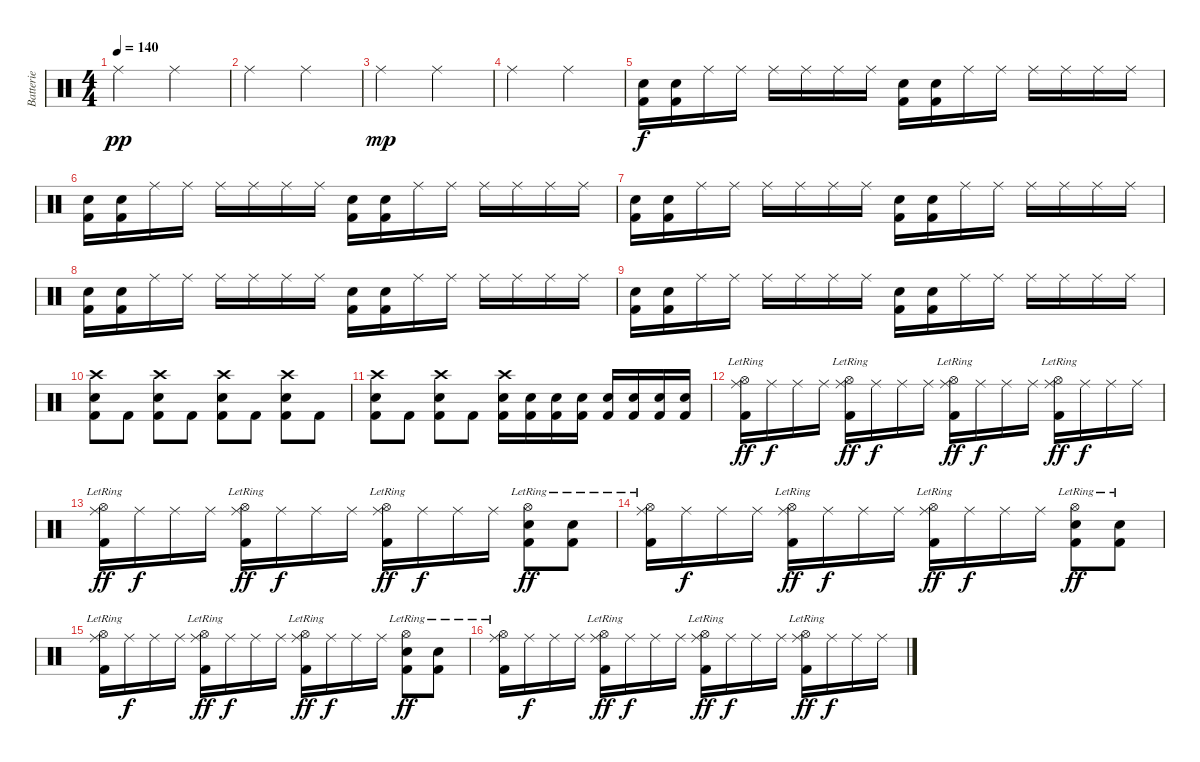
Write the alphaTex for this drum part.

\track ("Batterie" "Batterie") {instrument percussion}
\staff {score}
\articulation defaults
\ts (4 4)
\tempo 140
\clef neutral
\ks c "Ride (middle)".2{dy pp} "Ride (middle)".2
|
"Ride (middle)".2 "Ride (middle)".2 |
"Ride (middle)".2{dy mp} "Ride (middle)".2 |
"Ride (middle)".2 "Ride (middle)".2 |
("Snare (hit) 2" "Kick (hit) 2").16{dy f} ("Snare (hit) 2" "Kick (hit) 2").16 "Ride (middle)".16 "Ride (middle)".16 "Ride (middle)".16 "Ride (middle)".16 "Ride (middle)".16 "Ride (middle)".16 ("Snare (hit) 2" "Kick (hit) 2").16 ("Snare (hit) 2" "Kick (hit) 2").16 "Ride (middle)".16 "Ride (middle)".16 "Ride (middle)".16 "Ride (middle)".16 "Ride (middle)".16 "Ride (middle)".16 |
("Snare (hit) 2" "Kick (hit) 2").16 ("Snare (hit) 2" "Kick (hit) 2").16 "Ride (middle)".16 "Ride (middle)".16 "Ride (middle)".16 "Ride (middle)".16 "Ride (middle)".16 "Ride (middle)".16 ("Snare (hit) 2" "Kick (hit) 2").16 ("Snare (hit) 2" "Kick (hit) 2").16 "Ride (middle)".16 "Ride (middle)".16 "Ride (middle)".16 "Ride (middle)".16 "Ride (middle)".16 "Ride (middle)".16 |
("Snare (hit) 2" "Kick (hit) 2").16 ("Snare (hit) 2" "Kick (hit) 2").16 "Ride (middle)".16 "Ride (middle)".16 "Ride (middle)".16 "Ride (middle)".16 "Ride (middle)".16 "Ride (middle)".16 ("Snare (hit) 2" "Kick (hit) 2").16 ("Snare (hit) 2" "Kick (hit) 2").16 "Ride (middle)".16 "Ride (middle)".16 "Ride (middle)".16 "Ride (middle)".16 "Ride (middle)".16 "Ride (middle)".16 |
("Snare (hit) 2" "Kick (hit) 2").16 ("Snare (hit) 2" "Kick (hit) 2").16 "Ride (middle)".16 "Ride (middle)".16 "Ride (middle)".16 "Ride (middle)".16 "Ride (middle)".16 "Ride (middle)".16 ("Snare (hit) 2" "Kick (hit) 2").16 ("Snare (hit) 2" "Kick (hit) 2").16 "Ride (middle)".16 "Ride (middle)".16 "Ride (middle)".16 "Ride (middle)".16 "Ride (middle)".16 "Ride (middle)".16 |
("Snare (hit) 2" "Kick (hit) 2").16 ("Snare (hit) 2" "Kick (hit) 2").16 "Ride (middle)".16 "Ride (middle)".16 "Ride (middle)".16 "Ride (middle)".16 "Ride (middle)".16 "Ride (middle)".16 ("Snare (hit) 2" "Kick (hit) 2").16 ("Snare (hit) 2" "Kick (hit) 2").16 "Ride (middle)".16 "Ride (middle)".16 "Ride (middle)".16 "Ride (middle)".16 "Ride (middle)".16 "Ride (middle)".16 |
("Crash high (hit)" "Snare (hit) 2" "Kick (hit) 2").8 "Kick (hit) 2".8 ("Crash high (hit)" "Snare (hit) 2" "Kick (hit) 2").8 "Kick (hit) 2".8 ("Crash high (hit)" "Snare (hit) 2" "Kick (hit) 2").8 "Kick (hit) 2".8 ("Crash high (hit)" "Snare (hit) 2" "Kick (hit) 2").8 "Kick (hit) 2".8 |
("Crash high (hit)" "Snare (hit) 2" "Kick (hit) 2").8 "Kick (hit) 2".8 ("Crash high (hit)" "Snare (hit) 2" "Kick (hit) 2").8 "Kick (hit) 2".8 ("Crash high (hit)" "Snare (hit) 2" "Kick (hit) 2").16 ("Snare (hit) 2" "Kick (hit) 2").16 ("Snare (hit) 2" "Kick (hit) 2").16 ("Snare (hit) 2" "Kick (hit) 2").16 ("Snare (hit) 2" "Kick (hit) 2").16 ("Snare (hit) 2" "Kick (hit) 2").16 ("Snare (hit) 2" "Kick (hit) 2").16 ("Snare (hit) 2" "Kick (hit) 2").16 |
("Ride (middle)" "Hi-Hat (open)"{lr} "Kick (hit) 2"{lr}).16{dy ff} "Ride (middle)".16{dy f} "Ride (middle)".16 "Ride (middle)".16 ("Ride (middle)" "Hi-Hat (open)"{lr} "Kick (hit) 2"{lr}).16{dy ff} "Ride (middle)".16{dy f} "Ride (middle)".16 "Ride (middle)".16 ("Ride (middle)" "Hi-Hat (open)"{lr} "Kick (hit) 2"{lr}).16{dy ff} "Ride (middle)".16{dy f} "Ride (middle)".16 "Ride (middle)".16 ("Ride (middle)" "Hi-Hat (open)"{lr} "Kick (hit) 2"{lr}).16{dy ff} "Ride (middle)".16{dy f} "Ride (middle)".16 "Ride (middle)".16 |
("Ride (middle)" "Hi-Hat (open)"{lr} "Kick (hit) 2"{lr}).16{dy ff} "Ride (middle)".16{dy f} "Ride (middle)".16 "Ride (middle)".16 ("Ride (middle)" "Hi-Hat (open)"{lr} "Kick (hit) 2"{lr}).16{dy ff} "Ride (middle)".16{dy f} "Ride (middle)".16 "Ride (middle)".16 ("Ride (middle)" "Hi-Hat (open)"{lr} "Kick (hit) 2"{lr}).16{dy ff} "Ride (middle)".16{dy f} "Ride (middle)".16 "Ride (middle)".16 ("Snare (hit) 2" "Hi-Hat (open)" "Kick (hit) 2"{lr}).8{dy ff} ("Snare (hit) 2" "Kick (hit) 2"{lr}).8 |
("Ride (middle)" "Hi-Hat (open)"{lr} "Kick (hit) 2"{lr}).16 "Ride (middle)".16{dy f} "Ride (middle)".16 "Ride (middle)".16 ("Ride (middle)" "Hi-Hat (open)"{lr} "Kick (hit) 2"{lr}).16{dy ff} "Ride (middle)".16{dy f} "Ride (middle)".16 "Ride (middle)".16 ("Ride (middle)" "Hi-Hat (open)"{lr} "Kick (hit) 2"{lr}).16{dy ff} "Ride (middle)".16{dy f} "Ride (middle)".16 "Ride (middle)".16 ("Snare (hit) 2" "Hi-Hat (open)" "Kick (hit) 2"{lr}).8{dy ff} ("Snare (hit) 2" "Kick (hit) 2"{lr}).8 |
("Ride (middle)" "Hi-Hat (open)"{lr} "Kick (hit) 2"{lr}).16 "Ride (middle)".16{dy f} "Ride (middle)".16 "Ride (middle)".16 ("Ride (middle)" "Hi-Hat (open)"{lr} "Kick (hit) 2"{lr}).16{dy ff} "Ride (middle)".16{dy f} "Ride (middle)".16 "Ride (middle)".16 ("Ride (middle)" "Hi-Hat (open)"{lr} "Kick (hit) 2"{lr}).16{dy ff} "Ride (middle)".16{dy f} "Ride (middle)".16 "Ride (middle)".16 ("Snare (hit) 2" "Hi-Hat (open)" "Kick (hit) 2"{lr}).8{dy ff} ("Snare (hit) 2" "Kick (hit) 2"{lr}).8 |
("Ride (middle)" "Hi-Hat (open)"{lr} "Kick (hit) 2"{lr}).16 "Ride (middle)".16{dy f} "Ride (middle)".16 "Ride (middle)".16 ("Ride (middle)" "Hi-Hat (open)"{lr} "Kick (hit) 2"{lr}).16{dy ff} "Ride (middle)".16{dy f} "Ride (middle)".16 "Ride (middle)".16 ("Ride (middle)" "Hi-Hat (open)"{lr} "Kick (hit) 2"{lr}).16{dy ff} "Ride (middle)".16{dy f} "Ride (middle)".16 "Ride (middle)".16 ("Ride (middle)" "Hi-Hat (open)"{lr} "Kick (hit) 2"{lr}).16{dy ff} "Ride (middle)".16{dy f} "Ride (middle)".16 "Ride (middle)".16
